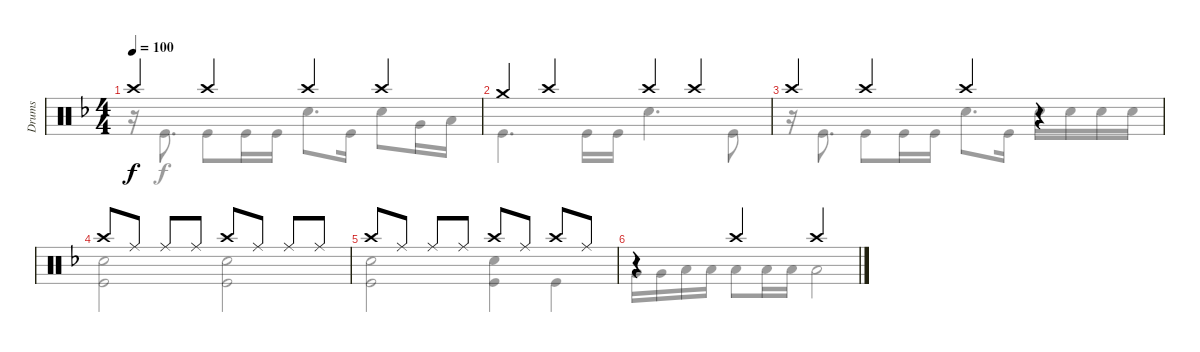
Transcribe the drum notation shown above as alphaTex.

\track ("Drums" "Drums") {instrument percussion}
\staff {score}
\articulation defaults
\voice
\ts (4 4)
\tempo 100
\clef neutral
\ks dminor "Crash high (hit)".4{dy f} "Crash high (hit)".4 "Crash high (hit)".4 "Crash high (hit)".4
|
"Crash medium (hit)".4 "Crash high (hit)".4 "Crash high (hit)".4 "Crash high (hit)".4 |
"Crash high (hit)".4 "Crash high (hit)".4 "Crash high (hit)".4 r.4 |
"Crash high (hit)".8 "Ride (middle)".8 "Ride (middle)".8 "Ride (middle)".8 "Crash high (hit)".8 "Ride (middle)".8 "Ride (middle)".8 "Ride (middle)".8 |
"Crash high (hit)".8 "Ride (middle)".8 "Ride (middle)".8 "Ride (middle)".8 "Crash high (hit)".8 "Ride (middle)".8 "Crash high (hit)".8 "Ride (middle)".8 |
r.4 "Crash high (hit)".4 "Crash high (hit)".2
\voice
\clef neutral
\ottava regular
\simile none
\ks dminor
r.16{dy f} "Kick (hit)".8{d} "Kick (hit)".8 "Kick (hit)".16 "Kick (hit)".16 "Snare (hit) 2".8{d} "Kick (hit)".16 "Snare (hit) 2".8 "Very Low Tom (hit)".16 "Low Floor Tom (hit)".16 |
"Kick (hit)".4{d} "Kick (hit)".16 "Kick (hit)".16 "Snare (hit) 2".4{d} "Kick (hit)".8 |
r.16 "Kick (hit)".8{d} "Kick (hit)".8 "Kick (hit)".16 "Kick (hit)".16 "Snare (hit) 2".8{d} "Kick (hit)".16 "Snare (hit) 2".16 "Snare (hit) 2".16 "Snare (hit) 2".16 "Snare (hit) 2".16 |
("Snare (hit) 2" "Kick (hit)").2 ("Snare (hit) 2" "Kick (hit)").2 |
("Snare (hit) 2" "Kick (hit)").2 ("Snare (hit) 2" "Kick (hit)").4 "Kick (hit)".4 |
"Very Low Tom (hit)".16 "Very Low Tom (hit)".16 "Low Floor Tom (hit)".16 "Low Floor Tom (hit)".16 "Low Floor Tom (hit)".8 "Low Floor Tom (hit)".16 "Low Floor Tom (hit)".16 "Low Floor Tom (hit)".2
